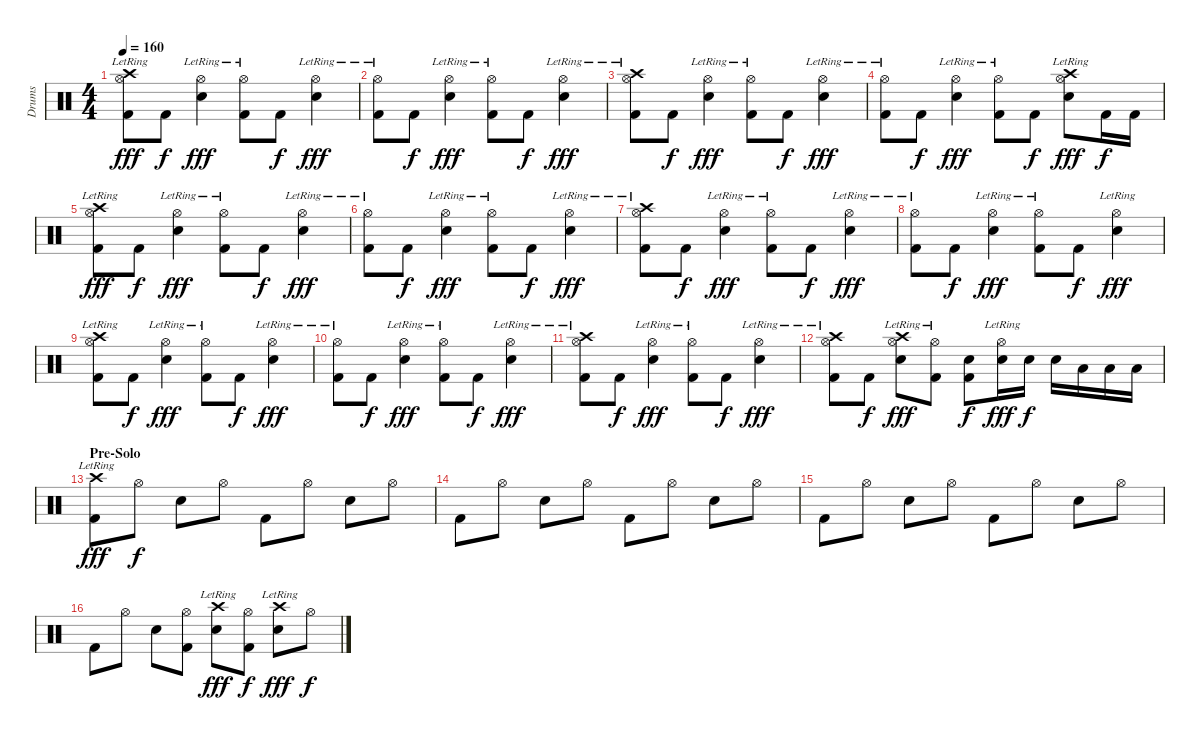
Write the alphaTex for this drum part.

\track ("Drums" "Drums") {instrument percussion}
\staff {score}
\articulation defaults
\ts (4 4)
\tempo 160
\clef neutral
\ks c
("Crash high (hit)" "Hi-Hat (open)"{lr} "Kick (hit) 2").8{dy fff} "Kick (hit) 2".8{dy f} ("Hi-Hat (open)"{lr} "Electric Snare (hit)").4{dy fff} ("Hi-Hat (open)"{lr} "Kick (hit) 2").8 "Kick (hit) 2".8{dy f} ("Hi-Hat (open)"{lr} "Electric Snare (hit)").4{dy fff} |
("Hi-Hat (open)"{lr} "Kick (hit) 2").8 "Kick (hit) 2".8{dy f} ("Hi-Hat (open)"{lr} "Electric Snare (hit)").4{dy fff} ("Hi-Hat (open)"{lr} "Kick (hit) 2").8 "Kick (hit) 2".8{dy f} ("Hi-Hat (open)"{lr} "Electric Snare (hit)").4{dy fff} |
("Crash high (hit)" "Hi-Hat (open)"{lr} "Kick (hit) 2").8 "Kick (hit) 2".8{dy f} ("Hi-Hat (open)"{lr} "Electric Snare (hit)").4{dy fff} ("Hi-Hat (open)"{lr} "Kick (hit) 2").8 "Kick (hit) 2".8{dy f} ("Hi-Hat (open)"{lr} "Electric Snare (hit)").4{dy fff} |
("Hi-Hat (open)"{lr} "Kick (hit) 2").8 "Kick (hit) 2".8{dy f} ("Hi-Hat (open)"{lr} "Electric Snare (hit)").4{dy fff} ("Hi-Hat (open)"{lr} "Kick (hit) 2").8 "Kick (hit) 2".8{dy f} ("Crash high (hit)" "Hi-Hat (open)"{lr} "Electric Snare (hit)").8{dy fff} "Kick (hit) 2".16{dy f} "Kick (hit) 2".16 |
("Crash high (hit)" "Hi-Hat (open)"{lr} "Kick (hit) 2").8{dy fff} "Kick (hit) 2".8{dy f} ("Hi-Hat (open)"{lr} "Electric Snare (hit)").4{dy fff} ("Hi-Hat (open)"{lr} "Kick (hit) 2").8 "Kick (hit) 2".8{dy f} ("Hi-Hat (open)"{lr} "Electric Snare (hit)").4{dy fff} |
("Hi-Hat (open)"{lr} "Kick (hit) 2").8 "Kick (hit) 2".8{dy f} ("Hi-Hat (open)"{lr} "Electric Snare (hit)").4{dy fff} ("Hi-Hat (open)"{lr} "Kick (hit) 2").8 "Kick (hit) 2".8{dy f} ("Hi-Hat (open)"{lr} "Electric Snare (hit)").4{dy fff} |
("Crash high (hit)" "Hi-Hat (open)"{lr} "Kick (hit) 2").8 "Kick (hit) 2".8{dy f} ("Hi-Hat (open)"{lr} "Electric Snare (hit)").4{dy fff} ("Hi-Hat (open)"{lr} "Kick (hit) 2").8 "Kick (hit) 2".8{dy f} ("Hi-Hat (open)"{lr} "Electric Snare (hit)").4{dy fff} |
("Hi-Hat (open)"{lr} "Kick (hit) 2").8 "Kick (hit) 2".8{dy f} ("Hi-Hat (open)"{lr} "Electric Snare (hit)").4{dy fff} ("Hi-Hat (open)"{lr} "Kick (hit) 2").8 "Kick (hit) 2".8{dy f} ("Hi-Hat (open)"{lr} "Electric Snare (hit)").4{dy fff} |
("Crash high (hit)" "Hi-Hat (open)"{lr} "Kick (hit) 2").8 "Kick (hit) 2".8{dy f} ("Hi-Hat (open)"{lr} "Electric Snare (hit)").4{dy fff} ("Hi-Hat (open)"{lr} "Kick (hit) 2").8 "Kick (hit) 2".8{dy f} ("Hi-Hat (open)"{lr} "Electric Snare (hit)").4{dy fff} |
("Hi-Hat (open)"{lr} "Kick (hit) 2").8 "Kick (hit) 2".8{dy f} ("Hi-Hat (open)"{lr} "Electric Snare (hit)").4{dy fff} ("Hi-Hat (open)"{lr} "Kick (hit) 2").8 "Kick (hit) 2".8{dy f} ("Hi-Hat (open)"{lr} "Electric Snare (hit)").4{dy fff} |
("Crash high (hit)" "Hi-Hat (open)"{lr} "Kick (hit) 2").8 "Kick (hit) 2".8{dy f} ("Hi-Hat (open)"{lr} "Electric Snare (hit)").4{dy fff} ("Hi-Hat (open)"{lr} "Kick (hit) 2").8 "Kick (hit) 2".8{dy f} ("Hi-Hat (open)"{lr} "Electric Snare (hit)").4{dy fff} |
("Crash high (hit)" "Hi-Hat (open)"{lr} "Kick (hit) 2").8 "Kick (hit) 2".8{dy f} ("Crash high (hit)" "Hi-Hat (open)"{lr} "Electric Snare (hit)").8{dy fff} ("Hi-Hat (open)"{lr} "Kick (hit) 2").8 ("Electric Snare (hit)" "Kick (hit) 2").8{dy f} ("Hi-Hat (open)"{lr} "Electric Snare (hit)").16{dy fff} "Electric Snare (hit)".16{dy f} "Electric Snare (hit)".16 "Low Tom (hit)".16 "Low Tom (hit)".16 "Low Tom (hit)".16 |
\section ("" "Pre-Solo")
("Crash high (hit)"{lr} "Kick (hit) 2").8{dy fff} "Hi-Hat (open)".8{dy f} "Electric Snare (hit)".8 "Hi-Hat (open)".8 "Kick (hit) 2".8 "Hi-Hat (open)".8 "Electric Snare (hit)".8 "Hi-Hat (open)".8 |
"Kick (hit) 2".8 "Hi-Hat (open)".8 "Electric Snare (hit)".8 "Hi-Hat (open)".8 "Kick (hit) 2".8 "Hi-Hat (open)".8 "Electric Snare (hit)".8 "Hi-Hat (open)".8 |
"Kick (hit) 2".8 "Hi-Hat (open)".8 "Electric Snare (hit)".8 "Hi-Hat (open)".8 "Kick (hit) 2".8 "Hi-Hat (open)".8 "Electric Snare (hit)".8 "Hi-Hat (open)".8 |
"Kick (hit) 2".8 "Hi-Hat (open)".8 "Electric Snare (hit)".8 ("Hi-Hat (open)" "Kick (hit) 2").8 ("Crash high (hit)"{lr} "Electric Snare (hit)").8{dy fff} ("Hi-Hat (open)" "Kick (hit) 2").8{dy f} ("Crash high (hit)"{lr} "Electric Snare (hit)").8{dy fff} "Hi-Hat (open)".8{dy f}
